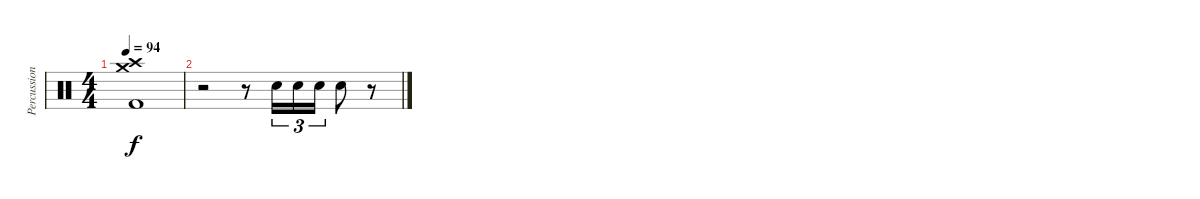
\track ("Percussion" "Percussion") {instrument percussion}
\staff {score}
\articulation defaults
\ts (4 4)
\tempo 94
\clef neutral
\ks c
("Crash high (hit)" "Crash medium (hit)" "Kick (hit) 2").1{dy f} |
r.2 r.8 "Electric Snare (hit)".16{tu (3 2)} "Electric Snare (hit)".16{tu (3 2)} "Electric Snare (hit)".16{tu (3 2)} "Electric Snare (hit)".8 r.8
